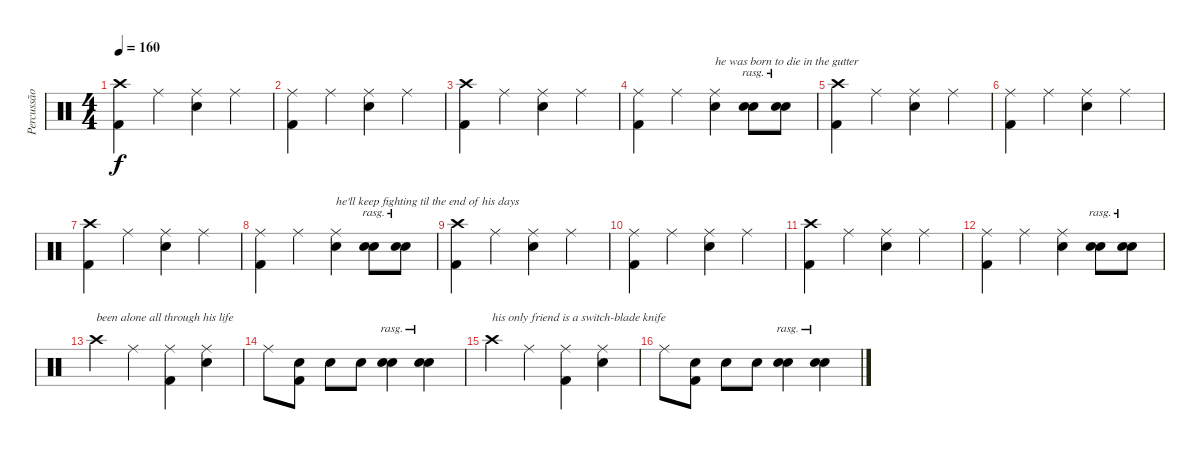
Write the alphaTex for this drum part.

\track ("Percussão" "Percussão") {instrument percussion}
\staff {score}
\articulation defaults
\ts (4 4)
\tempo 160
\clef neutral
\ks c
("Crash high (hit)" "Kick (hit) 2").4{dy f} "Ride (middle)".4 ("Ride (middle)" "Snare (hit) 2").4 "Ride (middle)".4 |
("Ride (middle)" "Kick (hit) 2").4 "Ride (middle)".4 ("Ride (middle)" "Snare (hit) 2").4 "Ride (middle)".4 |
("Crash high (hit)" "Kick (hit) 2").4 "Ride (middle)".4 ("Ride (middle)" "Snare (hit) 2").4 "Ride (middle)".4 |
("Ride (middle)" "Kick (hit) 2").4 "Ride (middle)".4 ("Ride (middle)" "Snare (hit) 2").4{txt "he was born to die in the gutter"} ("Snare (hit) 2" "Snare (hit) 2").8{bu 240 rasg ii} ("Snare (hit) 2" "Snare (hit) 2").8{bu 240 rasg ii} |
("Crash high (hit)" "Kick (hit) 2").4 "Ride (middle)".4 ("Ride (middle)" "Snare (hit) 2").4 "Ride (middle)".4 |
("Ride (middle)" "Kick (hit) 2").4 "Ride (middle)".4 ("Ride (middle)" "Snare (hit) 2").4 "Ride (middle)".4 |
("Crash high (hit)" "Kick (hit) 2").4 "Ride (middle)".4 ("Ride (middle)" "Snare (hit) 2").4 "Ride (middle)".4 |
("Ride (middle)" "Kick (hit) 2").4 "Ride (middle)".4 ("Ride (middle)" "Snare (hit) 2").4{txt "he'll keep fighting til the end of his days"} ("Snare (hit) 2" "Snare (hit) 2").8{bu 240 rasg ii} ("Snare (hit) 2" "Snare (hit) 2").8{bu 240 rasg ii} |
("Crash high (hit)" "Kick (hit) 2").4 "Ride (middle)".4 ("Ride (middle)" "Snare (hit) 2").4 "Ride (middle)".4 |
("Ride (middle)" "Kick (hit) 2").4 "Ride (middle)".4 ("Ride (middle)" "Snare (hit) 2").4 "Ride (middle)".4 |
("Crash high (hit)" "Kick (hit) 2").4 "Ride (middle)".4 ("Ride (middle)" "Snare (hit) 2").4 "Ride (middle)".4 |
("Ride (middle)" "Kick (hit) 2").4 "Ride (middle)".4 ("Ride (middle)" "Snare (hit) 2").4 ("Snare (hit) 2" "Snare (hit) 2").8{bu 240 rasg ii} ("Snare (hit) 2" "Snare (hit) 2").8{bu 240 rasg ii} |
"Crash high (hit)".4{txt "been alone all through his life"} "Ride (middle)".4 ("Ride (middle)" "Kick (hit) 2").4 ("Ride (middle)" "Snare (hit) 2").4 |
"Ride (middle)".8 ("Snare (hit) 2" "Kick (hit) 2").8 "Snare (hit) 2".8 "Snare (hit) 2".8 ("Snare (hit) 2" "Snare (hit) 2").4{bd 240 rasg ii} ("Snare (hit) 2" "Snare (hit) 2").4{bu 120 rasg ii} |
"Crash high (hit)".4{txt "his only friend is a switch-blade knife"} "Ride (middle)".4 ("Ride (middle)" "Kick (hit) 2").4 ("Ride (middle)" "Snare (hit) 2").4 |
"Ride (middle)".8 ("Snare (hit) 2" "Kick (hit) 2").8 "Snare (hit) 2".8 "Snare (hit) 2".8 ("Snare (hit) 2" "Snare (hit) 2").4{bd 240 rasg ii} ("Snare (hit) 2" "Snare (hit) 2").4{bu 120 rasg ii}
